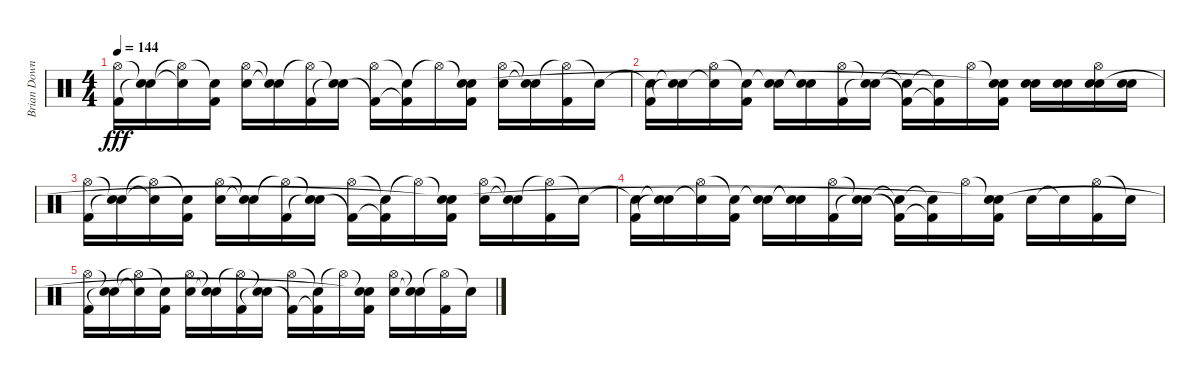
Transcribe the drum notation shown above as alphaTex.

\track ("Brian Downey" "Brian Down") {instrument percussion}
\staff {score}
\articulation defaults
\ts (4 4)
\tempo 144
\clef neutral
\ks c
("Hi-Hat (open)" "Kick (hit) 2").16{dy fff} ("Snare (hit)"{t} "Snare (hit)"{t}).16 ("Hi-Hat (open)"{t} "Snare (hit)"{t}).16 ("Snare (hit)"{t} "Kick (hit) 2").16 ("Hi-Hat (open)" "Electric Snare (hit)").16 ("Snare (hit)"{t} "Snare (hit)"{t}).16 ("Hi-Hat (open)"{t} "Kick (hit) 2").16 ("Snare (hit)"{t} "Snare (hit)"{t}).16 ("Hi-Hat (open)" "Kick (hit) 2"{t}).16 ("Snare (hit)"{t} "Kick (hit) 2"{t}).16 "Hi-Hat (open)"{t}.16 ("Snare (hit)"{t} "Kick (hit) 2" "Snare (hit)"{t}).16 ("Hi-Hat (open)" "Electric Snare (hit)").16 ("Snare (hit)"{t} "Snare (hit)"{t}).16 ("Hi-Hat (open)"{t} "Kick (hit) 2").16 "Snare (hit)"{t}.16 |
("Snare (hit)"{t} "Kick (hit) 2").16 ("Snare (hit)"{t} "Snare (hit)"{t}).16 ("Hi-Hat (open)" "Snare (hit)"{t}).16 ("Snare (hit)"{t} "Kick (hit) 2").16 ("Snare (hit)"{t} "Electric Snare (hit)").16 ("Snare (hit)"{t} "Snare (hit)"{t}).16 ("Hi-Hat (open)" "Kick (hit) 2").16 ("Snare (hit)"{t} "Snare (hit)"{t}).16 ("Snare (hit)"{t} "Kick (hit) 2"{t}).16 ("Snare (hit)"{t} "Kick (hit) 2"{t}).16 "Hi-Hat (open)".16 ("Snare (hit)"{t} "Kick (hit) 2" "Snare (hit)"{t}).16 ("Electric Snare (hit)" "Snare (hit) 2").16 ("Electric Snare (hit)" "Snare (hit) 2").16 ("Hi-Hat (open)" "Electric Snare (hit)" "Snare (hit) 2").16 ("Electric Snare (hit)" "Snare (hit) 2").16 |
("Hi-Hat (open)" "Kick (hit) 2").16 ("Snare (hit)"{t} "Snare (hit)"{t}).16 ("Hi-Hat (open)"{t} "Snare (hit)"{t}).16 ("Snare (hit)"{t} "Kick (hit) 2").16 ("Hi-Hat (open)" "Electric Snare (hit)").16 ("Snare (hit)"{t} "Snare (hit)"{t}).16 ("Hi-Hat (open)"{t} "Kick (hit) 2").16 ("Snare (hit)"{t} "Snare (hit)"{t}).16 ("Hi-Hat (open)" "Kick (hit) 2"{t}).16 ("Snare (hit)"{t} "Kick (hit) 2"{t}).16 "Hi-Hat (open)"{t}.16 ("Snare (hit)"{t} "Kick (hit) 2" "Snare (hit)"{t}).16 ("Hi-Hat (open)" "Electric Snare (hit)").16 ("Snare (hit)"{t} "Snare (hit)"{t}).16 ("Hi-Hat (open)"{t} "Kick (hit) 2").16 "Snare (hit)"{t}.16 |
("Snare (hit)"{t} "Kick (hit) 2").16 ("Snare (hit)"{t} "Snare (hit)"{t}).16 ("Hi-Hat (open)" "Snare (hit)"{t}).16 ("Snare (hit)"{t} "Kick (hit) 2").16 ("Snare (hit)"{t} "Electric Snare (hit)").16 ("Snare (hit)"{t} "Snare (hit)"{t}).16 ("Hi-Hat (open)" "Kick (hit) 2").16 ("Snare (hit)"{t} "Snare (hit)"{t}).16 ("Snare (hit)"{t} "Kick (hit) 2"{t}).16 ("Snare (hit)"{t} "Kick (hit) 2"{t}).16 "Hi-Hat (open)".16 ("Snare (hit)"{t} "Kick (hit) 2" "Snare (hit)"{t}).16 "Electric Snare (hit)".16 "Snare (hit)"{t}.16 ("Hi-Hat (open)" "Kick (hit) 2").16 "Snare (hit)"{t}.16 |
("Hi-Hat (open)" "Kick (hit) 2").16 ("Snare (hit)"{t} "Snare (hit)"{t}).16 ("Hi-Hat (open)"{t} "Snare (hit)"{t}).16 ("Snare (hit)"{t} "Kick (hit) 2").16 ("Hi-Hat (open)" "Electric Snare (hit)").16 ("Snare (hit)"{t} "Snare (hit)"{t}).16 ("Hi-Hat (open)"{t} "Kick (hit) 2").16 ("Snare (hit)"{t} "Snare (hit)"{t}).16 ("Hi-Hat (open)" "Kick (hit) 2"{t}).16 ("Snare (hit)"{t} "Kick (hit) 2"{t}).16 "Hi-Hat (open)"{t}.16 ("Snare (hit)"{t} "Kick (hit) 2" "Snare (hit)"{t}).16 ("Hi-Hat (open)" "Electric Snare (hit)").16 ("Snare (hit)"{t} "Snare (hit)"{t}).16 ("Hi-Hat (open)"{t} "Kick (hit) 2").16 "Snare (hit)"{t}.16
